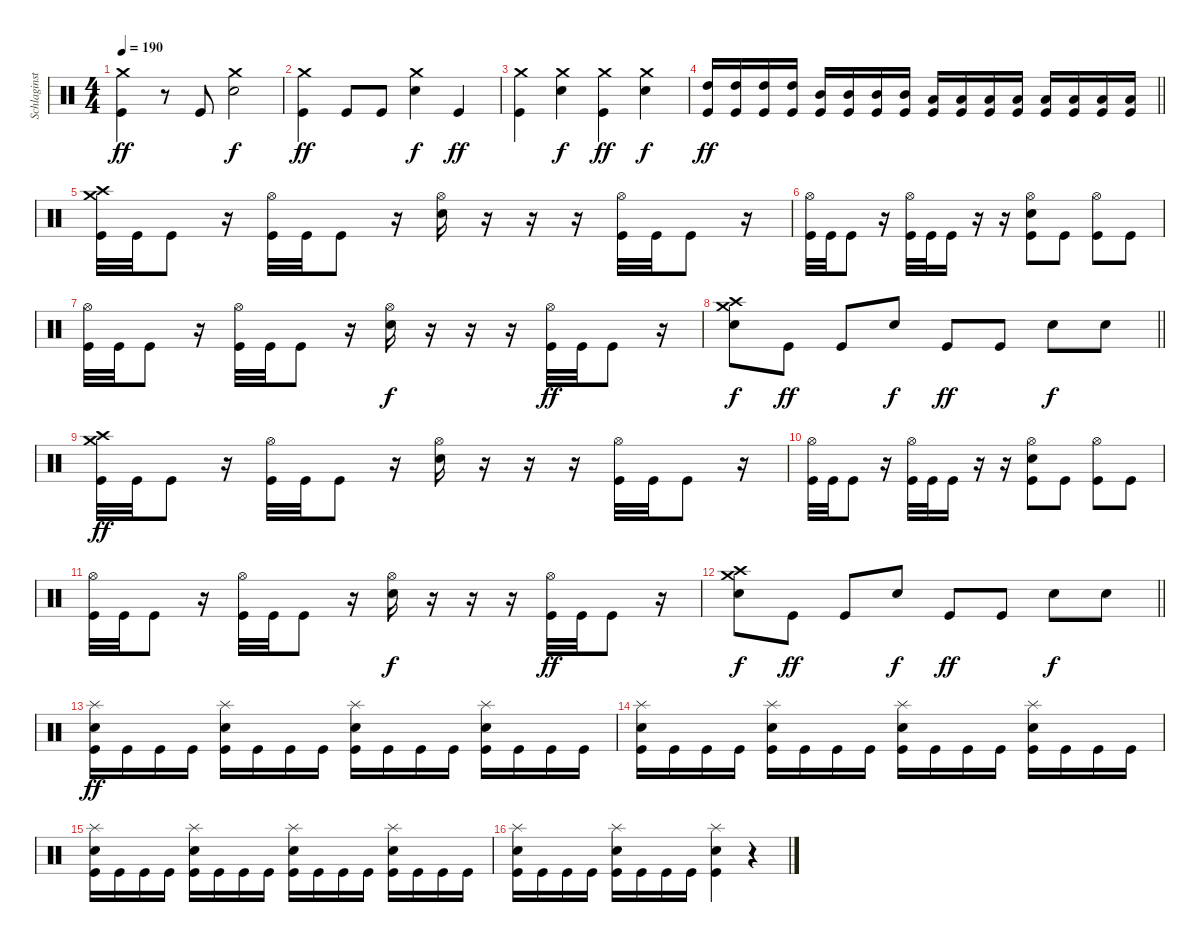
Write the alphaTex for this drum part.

\track ("Schlaginstrumente - Auswahl" "Schlaginst") {instrument percussion}
\staff {score}
\articulation defaults
\ts (4 4)
\tempo 190
\clef neutral
\ks c
("Crash medium (hit)" "Kick (hit)").4{dy ff} r.8 "Kick (hit)".8 ("Crash medium (hit)" "Electric Snare (hit)").2{dy f} |
("Crash medium (hit)" "Kick (hit)").4{dy ff} "Kick (hit)".8 "Kick (hit)".8 ("Crash medium (hit)" "Electric Snare (hit)").4{dy f} "Kick (hit)".4{dy ff} |
("Crash medium (hit)" "Kick (hit)").4 ("Crash medium (hit)" "Electric Snare (hit)").4{dy f} ("Crash medium (hit)" "Kick (hit)").4{dy ff} ("Crash medium (hit)" "Electric Snare (hit)").4{dy f} |
\barLineRight lightlight
("High Tom (hit)" "Kick (hit)").16{dy ff} ("High Tom (hit)" "Kick (hit)").16 ("High Tom (hit)" "Kick (hit)").16 ("High Tom (hit)" "Kick (hit)").16 ("Mid Tom (hit)" "Kick (hit)").16 ("Mid Tom (hit)" "Kick (hit)").16 ("Mid Tom (hit)" "Kick (hit)").16 ("Mid Tom (hit)" "Kick (hit)").16 ("Low Tom (hit)" "Kick (hit)").16 ("Low Tom (hit)" "Kick (hit)").16 ("Low Tom (hit)" "Kick (hit)").16 ("Low Tom (hit)" "Kick (hit)").16 ("Low Floor Tom (hit)" "Kick (hit)").16 ("Low Floor Tom (hit)" "Kick (hit)").16 ("Low Floor Tom (hit)" "Kick (hit)").16 ("Low Floor Tom (hit)" "Kick (hit)").16 |
("Crash high (hit)" "Crash medium (hit)" "Kick (hit)").32 "Kick (hit)".32 "Kick (hit)".8 r.16 ("Hi-Hat (open)" "Kick (hit)").32 "Kick (hit)".32 "Kick (hit)".8 r.16 ("Hi-Hat (open)" "Electric Snare (hit)").16 r.16 r.16 r.16 ("Hi-Hat (open)" "Kick (hit)").32 "Kick (hit)".32 "Kick (hit)".8 r.16 |
("Hi-Hat (open)" "Kick (hit)").32 "Kick (hit)".32 "Kick (hit)".8 r.16 ("Hi-Hat (open)" "Kick (hit)").32 "Kick (hit)".32 "Kick (hit)".16 r.16 r.16 ("Hi-Hat (open)" "Electric Snare (hit)" "Kick (hit)").8 "Kick (hit)".8 ("Hi-Hat (open)" "Kick (hit)").8 "Kick (hit)".8 |
("Hi-Hat (open)" "Kick (hit)").32 "Kick (hit)".32 "Kick (hit)".8 r.16 ("Hi-Hat (open)" "Kick (hit)").32 "Kick (hit)".32 "Kick (hit)".8 r.16 ("Hi-Hat (open)" "Electric Snare (hit)").16{dy f} r.16 r.16 r.16 ("Hi-Hat (open)" "Kick (hit)").32{dy ff} "Kick (hit)".32 "Kick (hit)".8 r.16 |
\barLineRight lightlight
("Crash medium (hit)" "Electric Snare (hit)" "Crash high (hit)").8{dy f} "Kick (hit)".8{dy ff} "Kick (hit)".8 "Electric Snare (hit)".8{dy f} "Kick (hit)".8{dy ff} "Kick (hit)".8 "Electric Snare (hit)".8{dy f} "Electric Snare (hit)".8 |
("Crash high (hit)" "Crash medium (hit)" "Kick (hit)").32{dy ff} "Kick (hit)".32 "Kick (hit)".8 r.16 ("Hi-Hat (open)" "Kick (hit)").32 "Kick (hit)".32 "Kick (hit)".8 r.16 ("Hi-Hat (open)" "Electric Snare (hit)").16 r.16 r.16 r.16 ("Hi-Hat (open)" "Kick (hit)").32 "Kick (hit)".32 "Kick (hit)".8 r.16 |
("Hi-Hat (open)" "Kick (hit)").32 "Kick (hit)".32 "Kick (hit)".8 r.16 ("Hi-Hat (open)" "Kick (hit)").32 "Kick (hit)".32 "Kick (hit)".16 r.16 r.16 ("Hi-Hat (open)" "Electric Snare (hit)" "Kick (hit)").8 "Kick (hit)".8 ("Hi-Hat (open)" "Kick (hit)").8 "Kick (hit)".8 |
("Hi-Hat (open)" "Kick (hit)").32 "Kick (hit)".32 "Kick (hit)".8 r.16 ("Hi-Hat (open)" "Kick (hit)").32 "Kick (hit)".32 "Kick (hit)".8 r.16 ("Hi-Hat (open)" "Electric Snare (hit)").16{dy f} r.16 r.16 r.16 ("Hi-Hat (open)" "Kick (hit)").32{dy ff} "Kick (hit)".32 "Kick (hit)".8 r.16 |
\barLineRight lightlight
("Crash medium (hit)" "Electric Snare (hit)" "Crash high (hit)").8{dy f} "Kick (hit)".8{dy ff} "Kick (hit)".8 "Electric Snare (hit)".8{dy f} "Kick (hit)".8{dy ff} "Kick (hit)".8 "Electric Snare (hit)".8{dy f} "Electric Snare (hit)".8 |
("Splash (hit)" "Electric Snare (hit)" "Kick (hit)").16{dy ff} "Kick (hit)".16 "Kick (hit)".16 "Kick (hit)".16 ("Splash (hit)" "Electric Snare (hit)" "Kick (hit)").16 "Kick (hit)".16 "Kick (hit)".16 "Kick (hit)".16 ("Splash (hit)" "Electric Snare (hit)" "Kick (hit)").16 "Kick (hit)".16 "Kick (hit)".16 "Kick (hit)".16 ("Splash (hit)" "Electric Snare (hit)" "Kick (hit)").16 "Kick (hit)".16 "Kick (hit)".16 "Kick (hit)".16 |
("Splash (hit)" "Electric Snare (hit)" "Kick (hit)").16 "Kick (hit)".16 "Kick (hit)".16 "Kick (hit)".16 ("Splash (hit)" "Electric Snare (hit)" "Kick (hit)").16 "Kick (hit)".16 "Kick (hit)".16 "Kick (hit)".16 ("Splash (hit)" "Electric Snare (hit)" "Kick (hit)").16 "Kick (hit)".16 "Kick (hit)".16 "Kick (hit)".16 ("Splash (hit)" "Electric Snare (hit)" "Kick (hit)").16 "Kick (hit)".16 "Kick (hit)".16 "Kick (hit)".16 |
("Splash (hit)" "Electric Snare (hit)" "Kick (hit)").16 "Kick (hit)".16 "Kick (hit)".16 "Kick (hit)".16 ("Splash (hit)" "Electric Snare (hit)" "Kick (hit)").16 "Kick (hit)".16 "Kick (hit)".16 "Kick (hit)".16 ("Splash (hit)" "Electric Snare (hit)" "Kick (hit)").16 "Kick (hit)".16 "Kick (hit)".16 "Kick (hit)".16 ("Splash (hit)" "Electric Snare (hit)" "Kick (hit)").16 "Kick (hit)".16 "Kick (hit)".16 "Kick (hit)".16 |
("Splash (hit)" "Electric Snare (hit)" "Kick (hit)").16 "Kick (hit)".16 "Kick (hit)".16 "Kick (hit)".16 ("Splash (hit)" "Electric Snare (hit)" "Kick (hit)").16 "Kick (hit)".16 "Kick (hit)".16 "Kick (hit)".16 ("Splash (hit)" "Electric Snare (hit)" "Kick (hit)").4 r.4
